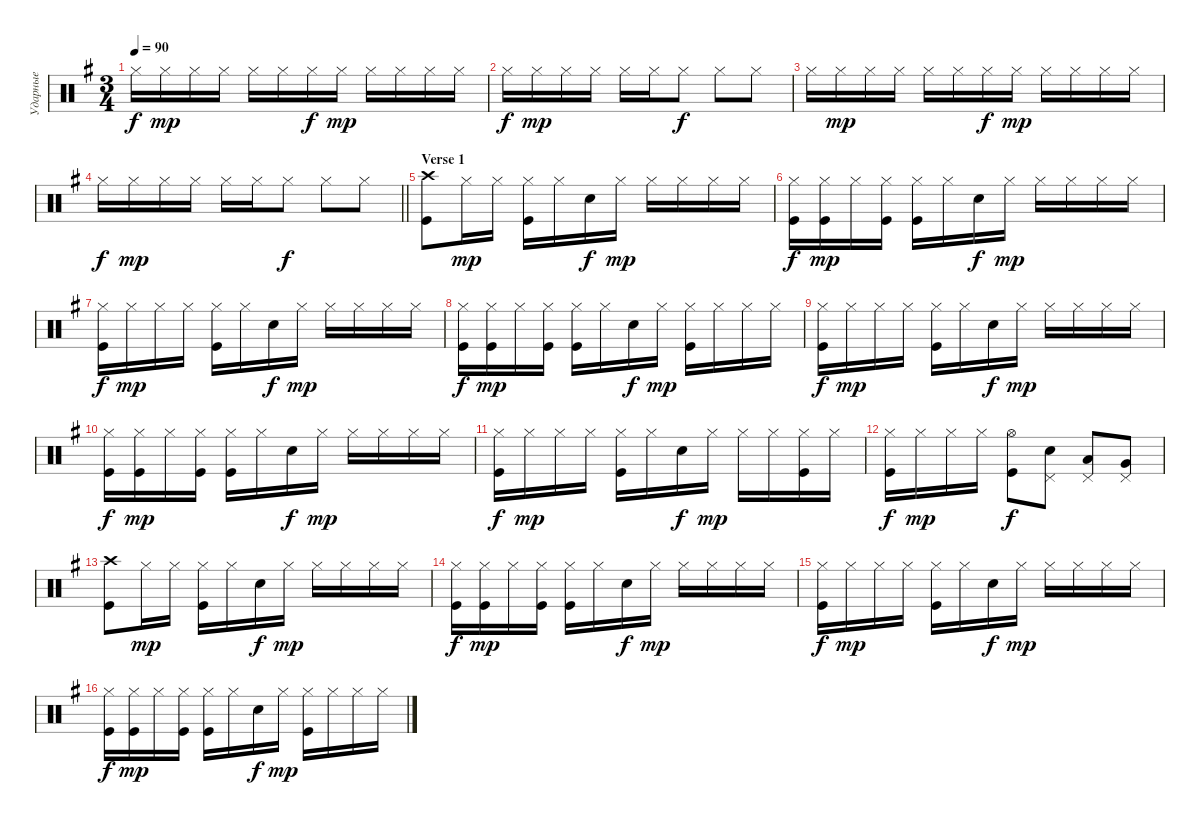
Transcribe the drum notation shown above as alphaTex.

\track ("Ударные" "Ударные") {instrument percussion}
\staff {score}
\articulation defaults
\ts (3 4)
\tempo 90
\clef neutral
\ks eminor "Hi-Hat (closed)".16{dy f} "Hi-Hat (closed)".16{dy mp} "Hi-Hat (closed)".16 "Hi-Hat (closed)".16 "Hi-Hat (closed)".16 "Hi-Hat (closed)".16 "Hi-Hat (closed)".16{dy f} "Hi-Hat (closed)".16{dy mp} "Hi-Hat (closed)".16 "Hi-Hat (closed)".16 "Hi-Hat (closed)".16 "Hi-Hat (closed)".16
|
"Hi-Hat (closed)".16{dy f} "Hi-Hat (closed)".16{dy mp} "Hi-Hat (closed)".16 "Hi-Hat (closed)".16 "Hi-Hat (closed)".16 "Hi-Hat (closed)".16 "Hi-Hat (closed)".8{dy f} "Hi-Hat (closed)".8 "Hi-Hat (closed)".8 |
"Hi-Hat (closed)".16 "Hi-Hat (closed)".16{dy mp} "Hi-Hat (closed)".16 "Hi-Hat (closed)".16 "Hi-Hat (closed)".16 "Hi-Hat (closed)".16 "Hi-Hat (closed)".16{dy f} "Hi-Hat (closed)".16{dy mp} "Hi-Hat (closed)".16 "Hi-Hat (closed)".16 "Hi-Hat (closed)".16 "Hi-Hat (closed)".16 |
\barLineRight lightlight "Hi-Hat (closed)".16{dy f} "Hi-Hat (closed)".16{dy mp} "Hi-Hat (closed)".16 "Hi-Hat (closed)".16 "Hi-Hat (closed)".16 "Hi-Hat (closed)".16 "Hi-Hat (closed)".8{dy f} "Hi-Hat (closed)".8 "Hi-Hat (closed)".8
|
\section ("" "Verse 1")
("Crash high (hit)" "Kick (hit)").8 "Hi-Hat (closed)".16{dy mp} "Hi-Hat (closed)".16 ("Hi-Hat (closed)" "Kick (hit)").16 "Hi-Hat (closed)".16 "Snare (hit) 2".16{dy f} "Hi-Hat (closed)".16{dy mp} "Hi-Hat (closed)".16 "Hi-Hat (closed)".16 "Hi-Hat (closed)".16 "Hi-Hat (closed)".16 |
("Hi-Hat (closed)" "Kick (hit)").16{dy f} ("Hi-Hat (closed)" "Kick (hit)").16{dy mp} "Hi-Hat (closed)".16 ("Hi-Hat (closed)" "Kick (hit)").16 ("Hi-Hat (closed)" "Kick (hit)").16 "Hi-Hat (closed)".16 "Snare (hit) 2".16{dy f} "Hi-Hat (closed)".16{dy mp} "Hi-Hat (closed)".16 "Hi-Hat (closed)".16 "Hi-Hat (closed)".16 "Hi-Hat (closed)".16 |
("Hi-Hat (closed)" "Kick (hit)").16{dy f} "Hi-Hat (closed)".16{dy mp} "Hi-Hat (closed)".16 "Hi-Hat (closed)".16 ("Hi-Hat (closed)" "Kick (hit)").16 "Hi-Hat (closed)".16 "Snare (hit) 2".16{dy f} "Hi-Hat (closed)".16{dy mp} "Hi-Hat (closed)".16 "Hi-Hat (closed)".16 "Hi-Hat (closed)".16 "Hi-Hat (closed)".16 |
("Hi-Hat (closed)" "Kick (hit)").16{dy f} ("Hi-Hat (closed)" "Kick (hit)").16{dy mp} "Hi-Hat (closed)".16 ("Hi-Hat (closed)" "Kick (hit)").16 ("Hi-Hat (closed)" "Kick (hit)").16 "Hi-Hat (closed)".16 "Snare (hit) 2".16{dy f} "Hi-Hat (closed)".16{dy mp} ("Hi-Hat (closed)" "Kick (hit)").16 "Hi-Hat (closed)".16 "Hi-Hat (closed)".16 "Hi-Hat (closed)".16 |
("Hi-Hat (closed)" "Kick (hit)").16{dy f} "Hi-Hat (closed)".16{dy mp} "Hi-Hat (closed)".16 "Hi-Hat (closed)".16 ("Hi-Hat (closed)" "Kick (hit)").16 "Hi-Hat (closed)".16 "Snare (hit) 2".16{dy f} "Hi-Hat (closed)".16{dy mp} "Hi-Hat (closed)".16 "Hi-Hat (closed)".16 "Hi-Hat (closed)".16 "Hi-Hat (closed)".16 |
("Hi-Hat (closed)" "Kick (hit)").16{dy f} ("Hi-Hat (closed)" "Kick (hit)").16{dy mp} "Hi-Hat (closed)".16 ("Hi-Hat (closed)" "Kick (hit)").16 ("Hi-Hat (closed)" "Kick (hit)").16 "Hi-Hat (closed)".16 "Snare (hit) 2".16{dy f} "Hi-Hat (closed)".16{dy mp} "Hi-Hat (closed)".16 "Hi-Hat (closed)".16 "Hi-Hat (closed)".16 "Hi-Hat (closed)".16 |
("Hi-Hat (closed)" "Kick (hit)").16{dy f} "Hi-Hat (closed)".16{dy mp} "Hi-Hat (closed)".16 "Hi-Hat (closed)".16 ("Hi-Hat (closed)" "Kick (hit)").16 "Hi-Hat (closed)".16 "Snare (hit) 2".16{dy f} "Hi-Hat (closed)".16{dy mp} "Hi-Hat (closed)".16 "Hi-Hat (closed)".16 ("Hi-Hat (closed)" "Kick (hit)").16 "Hi-Hat (closed)".16 |
("Hi-Hat (closed)" "Kick (hit)").16{dy f} "Hi-Hat (closed)".16{dy mp} "Hi-Hat (closed)".16 "Hi-Hat (closed)".16 ("Hi-Hat (open)" "Kick (hit)").8{dy f} ("Snare (hit) 2" "Pedal Hi-Hat (hit)").8 ("Pedal Hi-Hat (hit)" "Low Tom (hit)").8{bd 60} ("Pedal Hi-Hat (hit)" "Very Low Tom (hit)").8{bd 60} |
("Crash high (hit)" "Kick (hit)").8 "Hi-Hat (closed)".16{dy mp} "Hi-Hat (closed)".16 ("Hi-Hat (closed)" "Kick (hit)").16 "Hi-Hat (closed)".16 "Snare (hit) 2".16{dy f} "Hi-Hat (closed)".16{dy mp} "Hi-Hat (closed)".16 "Hi-Hat (closed)".16 "Hi-Hat (closed)".16 "Hi-Hat (closed)".16 |
("Hi-Hat (closed)" "Kick (hit)").16{dy f} ("Hi-Hat (closed)" "Kick (hit)").16{dy mp} "Hi-Hat (closed)".16 ("Hi-Hat (closed)" "Kick (hit)").16 ("Hi-Hat (closed)" "Kick (hit)").16 "Hi-Hat (closed)".16 "Snare (hit) 2".16{dy f} "Hi-Hat (closed)".16{dy mp} "Hi-Hat (closed)".16 "Hi-Hat (closed)".16 "Hi-Hat (closed)".16 "Hi-Hat (closed)".16 |
("Hi-Hat (closed)" "Kick (hit)").16{dy f} "Hi-Hat (closed)".16{dy mp} "Hi-Hat (closed)".16 "Hi-Hat (closed)".16 ("Hi-Hat (closed)" "Kick (hit)").16 "Hi-Hat (closed)".16 "Snare (hit) 2".16{dy f} "Hi-Hat (closed)".16{dy mp} "Hi-Hat (closed)".16 "Hi-Hat (closed)".16 "Hi-Hat (closed)".16 "Hi-Hat (closed)".16 |
("Hi-Hat (closed)" "Kick (hit)").16{dy f} ("Hi-Hat (closed)" "Kick (hit)").16{dy mp} "Hi-Hat (closed)".16 ("Hi-Hat (closed)" "Kick (hit)").16 ("Hi-Hat (closed)" "Kick (hit)").16 "Hi-Hat (closed)".16 "Snare (hit) 2".16{dy f} "Hi-Hat (closed)".16{dy mp} ("Hi-Hat (closed)" "Kick (hit)").16 "Hi-Hat (closed)".16 "Hi-Hat (closed)".16 "Hi-Hat (closed)".16
